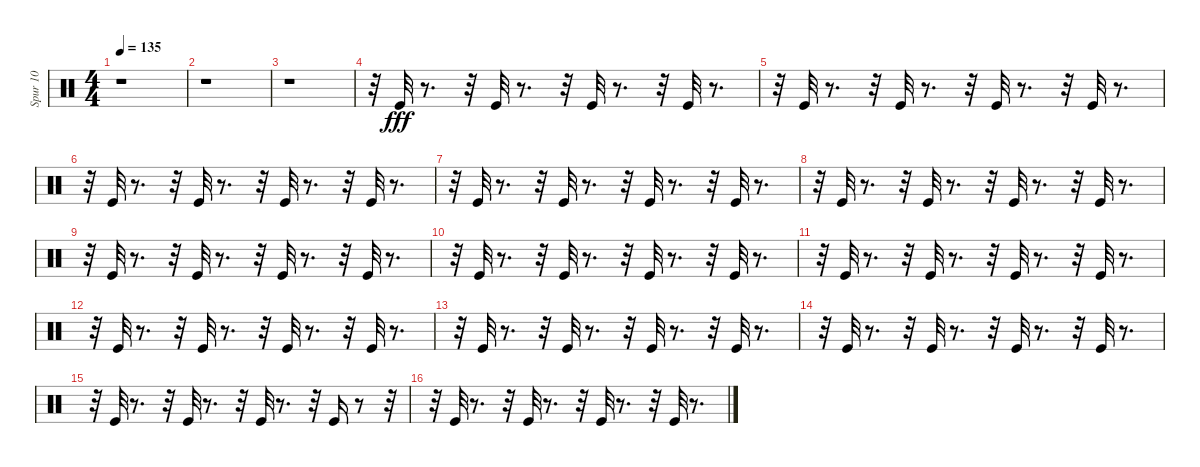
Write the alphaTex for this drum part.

\track ("Spur 10" "Spur 10") {instrument percussion}
\staff {score}
\articulation defaults
\ts (4 4)
\tempo 135
\clef neutral
\ks c
r.1{dy fff} |
r.1 |
r.1 |
r.32 "Kick (hit)".32 r.8{d} r.32 "Kick (hit)".32 r.8{d} r.32 "Kick (hit)".32 r.8{d} r.32 "Kick (hit)".32 r.8{d} |
r.32 "Kick (hit)".32 r.8{d} r.32 "Kick (hit)".32 r.8{d} r.32 "Kick (hit)".32 r.8{d} r.32 "Kick (hit)".32 r.8{d} |
r.32 "Kick (hit)".32 r.8{d} r.32 "Kick (hit)".32 r.8{d} r.32 "Kick (hit)".32 r.8{d} r.32 "Kick (hit)".32 r.8{d} |
r.32 "Kick (hit)".32 r.8{d} r.32 "Kick (hit)".32 r.8{d} r.32 "Kick (hit)".32 r.8{d} r.32 "Kick (hit)".32 r.8{d} |
r.32 "Kick (hit)".32 r.8{d} r.32 "Kick (hit)".32 r.8{d} r.32 "Kick (hit)".32 r.8{d} r.32 "Kick (hit)".32 r.8{d} |
r.32 "Kick (hit)".32 r.8{d} r.32 "Kick (hit)".32 r.8{d} r.32 "Kick (hit)".32 r.8{d} r.32 "Kick (hit)".32 r.8{d} |
r.32 "Kick (hit)".32 r.8{d} r.32 "Kick (hit)".32 r.8{d} r.32 "Kick (hit)".32 r.8{d} r.32 "Kick (hit)".32 r.8{d} |
r.32 "Kick (hit)".32 r.8{d} r.32 "Kick (hit)".32 r.8{d} r.32 "Kick (hit)".32 r.8{d} r.32 "Kick (hit)".32 r.8{d} |
r.32 "Kick (hit)".32 r.8{d} r.32 "Kick (hit)".32 r.8{d} r.32 "Kick (hit)".32 r.8{d} r.32 "Kick (hit)".32 r.8{d} |
r.32 "Kick (hit)".32 r.8{d} r.32 "Kick (hit)".32 r.8{d} r.32 "Kick (hit)".32 r.8{d} r.32 "Kick (hit)".32 r.8{d} |
r.32 "Kick (hit)".32 r.8{d} r.32 "Kick (hit)".32 r.8{d} r.32 "Kick (hit)".32 r.8{d} r.32 "Kick (hit)".32 r.8{d} |
r.32 "Kick (hit)".32 r.8{d} r.32 "Kick (hit)".32 r.8{d} r.32 "Kick (hit)".32 r.8{d} r.32 "Kick (hit)".16 r.8 r.32 |
r.32 "Kick (hit)".32 r.8{d} r.32 "Kick (hit)".32 r.8{d} r.32 "Kick (hit)".32 r.8{d} r.32 "Kick (hit)".32 r.8{d}
